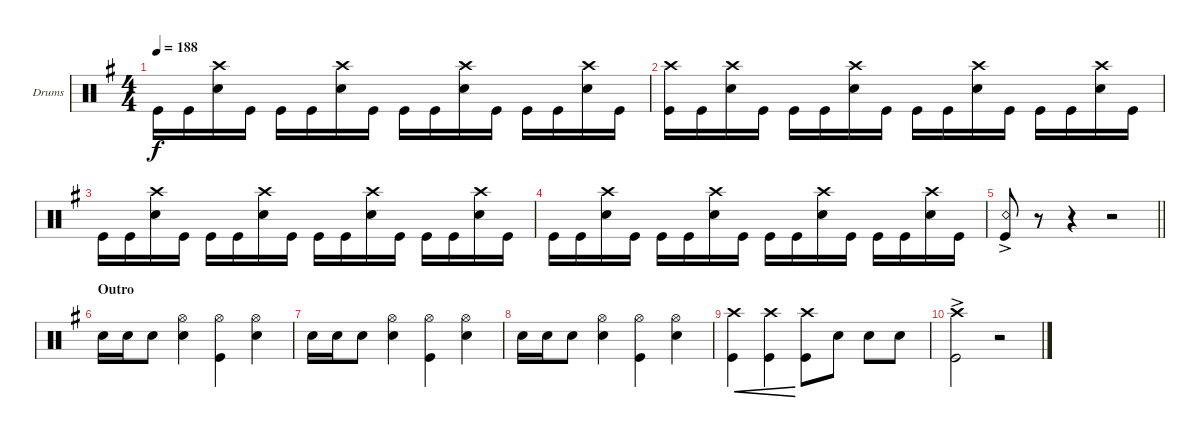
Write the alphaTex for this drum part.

\defaultSystemsLayout 4
\bracketExtendMode groupsimilarinstruments
\firstSystemTrackNameOrientation horizontal
\otherSystemsTrackNameOrientation horizontal
\track ("Drums" "Drums") {instrument percussion}
\staff {score}
\articulation defaults
\ts (4 4)
\tempo 188
\clef neutral
\ks g "Kick (hit)".16{dy f} "Kick (hit)".16
("Snare (hit) 2" "Crash high (hit)").16 "Kick (hit)".16 "Kick (hit)".16 "Kick (hit)".16 ("Snare (hit) 2" "Crash high (hit)").16 "Kick (hit)".16 "Kick (hit)".16 "Kick (hit)".16 ("Snare (hit) 2" "Crash high (hit)").16 "Kick (hit)".16 "Kick (hit)".16 "Kick (hit)".16 ("Snare (hit) 2" "Crash high (hit)").16 "Kick (hit)".16 |
("Kick (hit)" "Crash high (hit)").16 "Kick (hit)".16 ("Snare (hit) 2" "Crash high (hit)").16 "Kick (hit)".16 "Kick (hit)".16 "Kick (hit)".16 ("Snare (hit) 2" "Crash high (hit)").16 "Kick (hit)".16 "Kick (hit)".16 "Kick (hit)".16 ("Snare (hit) 2" "Crash high (hit)").16 "Kick (hit)".16 "Kick (hit)".16 "Kick (hit)".16 ("Snare (hit) 2" "Crash high (hit)").16 "Kick (hit)".16 |
"Kick (hit)".16 "Kick (hit)".16 ("Snare (hit) 2" "Crash high (hit)").16 "Kick (hit)".16 "Kick (hit)".16 "Kick (hit)".16 ("Snare (hit) 2" "Crash high (hit)").16 "Kick (hit)".16 "Kick (hit)".16 "Kick (hit)".16 ("Snare (hit) 2" "Crash high (hit)").16 "Kick (hit)".16 "Kick (hit)".16 "Kick (hit)".16 ("Snare (hit) 2" "Crash high (hit)").16 "Kick (hit)".16 |
"Kick (hit)".16 "Kick (hit)".16 ("Snare (hit) 2" "Crash high (hit)").16 "Kick (hit)".16 "Kick (hit)".16 "Kick (hit)".16 ("Snare (hit) 2" "Crash high (hit)").16 "Kick (hit)".16 "Kick (hit)".16 "Kick (hit)".16 ("Snare (hit) 2" "Crash high (hit)").16 "Kick (hit)".16 "Kick (hit)".16 "Kick (hit)".16 ("Snare (hit) 2" "Crash high (hit)").16 "Kick (hit)".16 |
\barLineRight lightlight
("Kick (hit)"{ac} "Snare (rim shot)"{ac}).8 r.8 r.4 r.2 |
\section ("" "Outro")
"Snare (hit) 2".16 "Snare (hit) 2".16 "Snare (hit) 2".8 ("Snare (hit) 2" "Hi-Hat (open)").4 ("Kick (hit)" "Hi-Hat (open)").4 ("Snare (hit) 2" "Hi-Hat (open)").4 |
"Snare (hit) 2".16 "Snare (hit) 2".16 "Snare (hit) 2".8 ("Snare (hit) 2" "Hi-Hat (open)").4 ("Kick (hit)" "Hi-Hat (open)").4 ("Snare (hit) 2" "Hi-Hat (open)").4 |
"Snare (hit) 2".16 "Snare (hit) 2".16 "Snare (hit) 2".8 ("Snare (hit) 2" "Hi-Hat (open)").4 ("Kick (hit)" "Hi-Hat (open)").4 ("Snare (hit) 2" "Hi-Hat (open)").4 |
("Kick (hit)" "Crash high (hit)").4{cre} ("Kick (hit)" "Crash high (hit)").4{cre} ("Kick (hit)" "Crash high (hit)").8 "Snare (hit) 2".8 "Snare (hit) 2".8 "Snare (hit) 2".8 |
("Kick (hit)"{ac} "Crash high (hit)"{ac}).2 r.2
